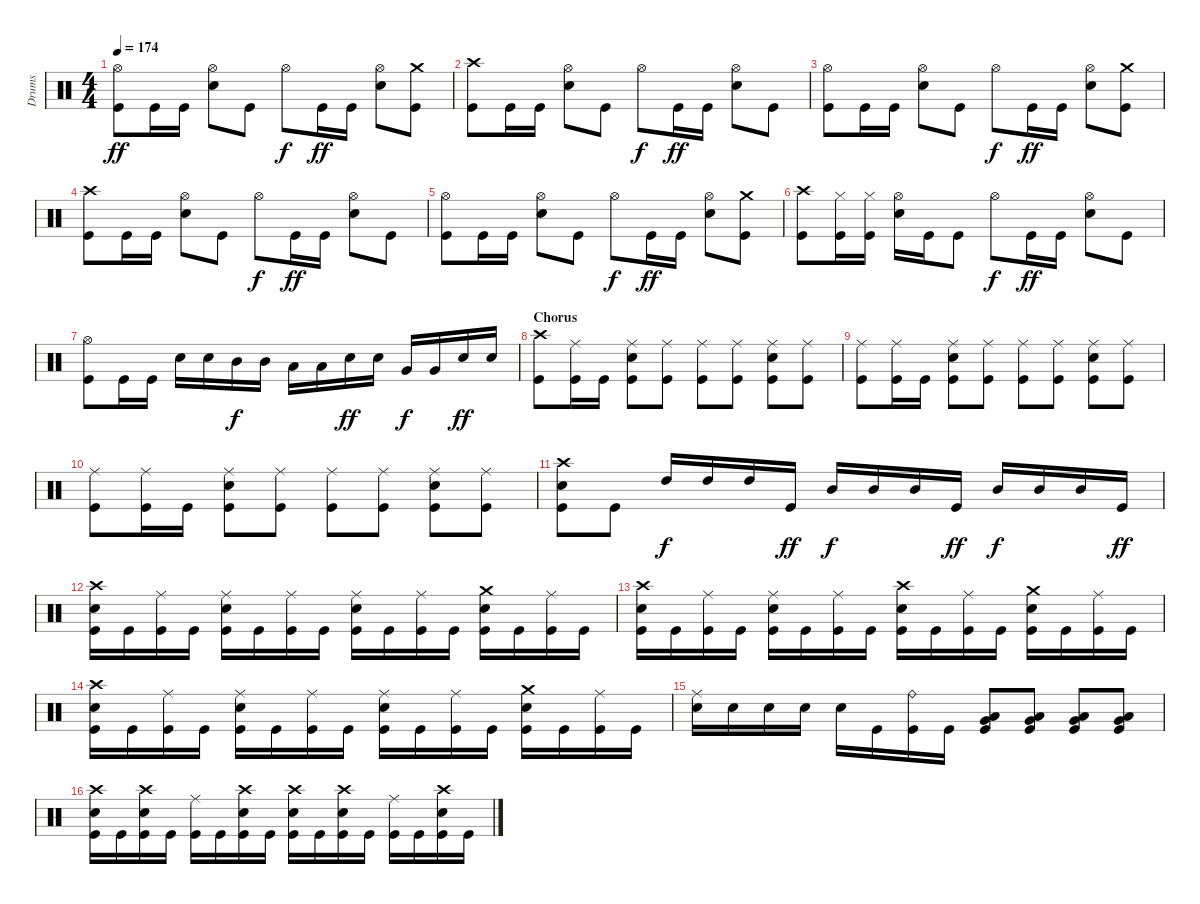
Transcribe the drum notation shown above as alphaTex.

\track ("Drums" "Drums") {instrument percussion}
\staff {score}
\articulation defaults
\ts (4 4)
\tempo 174
\clef neutral
\ks c
("Hi-Hat (open)" "Kick (hit)").8{dy ff} "Kick (hit)".16 "Kick (hit)".16 ("Hi-Hat (open)" "Electric Snare (hit)").8 "Kick (hit)".8 "Hi-Hat (open)".8{dy f} "Kick (hit)".16{dy ff} "Kick (hit)".16 ("Hi-Hat (open)" "Electric Snare (hit)").8 ("Crash medium (hit)" "Kick (hit)").8 |
("Crash high (hit)" "Kick (hit)").8 "Kick (hit)".16 "Kick (hit)".16 ("Hi-Hat (open)" "Electric Snare (hit)").8 "Kick (hit)".8 "Hi-Hat (open)".8{dy f} "Kick (hit)".16{dy ff} "Kick (hit)".16 ("Hi-Hat (open)" "Electric Snare (hit)").8 "Kick (hit)".8 |
("Hi-Hat (open)" "Kick (hit)").8 "Kick (hit)".16 "Kick (hit)".16 ("Hi-Hat (open)" "Electric Snare (hit)").8 "Kick (hit)".8 "Hi-Hat (open)".8{dy f} "Kick (hit)".16{dy ff} "Kick (hit)".16 ("Hi-Hat (open)" "Electric Snare (hit)").8 ("Crash medium (hit)" "Kick (hit)").8 |
("Crash high (hit)" "Kick (hit)").8 "Kick (hit)".16 "Kick (hit)".16 ("Hi-Hat (open)" "Electric Snare (hit)").8 "Kick (hit)".8 "Hi-Hat (open)".8{dy f} "Kick (hit)".16{dy ff} "Kick (hit)".16 ("Hi-Hat (open)" "Electric Snare (hit)").8 "Kick (hit)".8 |
("Hi-Hat (open)" "Kick (hit)").8 "Kick (hit)".16 "Kick (hit)".16 ("Hi-Hat (open)" "Electric Snare (hit)").8 "Kick (hit)".8 "Hi-Hat (open)".8{dy f} "Kick (hit)".16{dy ff} "Kick (hit)".16 ("Hi-Hat (open)" "Electric Snare (hit)").8 ("Crash medium (hit)" "Kick (hit)").8 |
("Crash high (hit)" "Kick (hit)").8 ("Hi-Hat (closed)" "Kick (hit)").16 ("Hi-Hat (closed)" "Kick (hit)").16 ("Hi-Hat (open)" "Electric Snare (hit)").16 "Kick (hit)".16 "Kick (hit)".8 "Hi-Hat (open)".8{dy f} "Kick (hit)".16{dy ff} "Kick (hit)".16 ("Hi-Hat (open)" "Electric Snare (hit)").8 "Kick (hit)".8 |
("Hi-Hat (open)" "Kick (hit)").8 "Kick (hit)".16 "Kick (hit)".16 "Electric Snare (hit)".16 "Electric Snare (hit)".16 "Mid Tom (hit)".16{dy f} "Mid Tom (hit)".16 "Low Tom (hit)".16 "Low Tom (hit)".16 "Electric Snare (hit)".16{dy ff} "Electric Snare (hit)".16 "Very Low Tom (hit)".16{dy f} "Very Low Tom (hit)".16 "Electric Snare (hit)".16{dy ff} "Electric Snare (hit)".16 |
\section ("" "Chorus")
("Crash high (hit)" "Kick (hit)").8 ("Ride (middle)" "Kick (hit)").16 "Kick (hit)".16 ("Ride (middle)" "Electric Snare (hit)" "Kick (hit)").8 ("Ride (middle)" "Kick (hit)").8 ("Ride (middle)" "Kick (hit)").8 ("Ride (middle)" "Kick (hit)").8 ("Ride (middle)" "Electric Snare (hit)" "Kick (hit)").8 ("Ride (middle)" "Kick (hit)").8 |
("Ride (middle)" "Kick (hit)").8 ("Ride (middle)" "Kick (hit)").16 "Kick (hit)".16 ("Ride (middle)" "Electric Snare (hit)" "Kick (hit)").8 ("Ride (middle)" "Kick (hit)").8 ("Ride (middle)" "Kick (hit)").8 ("Ride (middle)" "Kick (hit)").8 ("Ride (middle)" "Electric Snare (hit)" "Kick (hit)").8 ("Ride (middle)" "Kick (hit)").8 |
("Ride (middle)" "Kick (hit)").8 ("Ride (middle)" "Kick (hit)").16 "Kick (hit)".16 ("Ride (middle)" "Electric Snare (hit)" "Kick (hit)").8 ("Ride (middle)" "Kick (hit)").8 ("Ride (middle)" "Kick (hit)").8 ("Ride (middle)" "Kick (hit)").8 ("Ride (middle)" "Electric Snare (hit)" "Kick (hit)").8 ("Ride (middle)" "Kick (hit)").8 |
("Crash high (hit)" "Electric Snare (hit)" "Kick (hit)").8 "Kick (hit)".8 "High Tom (hit)".16{dy f} "High Tom (hit)".16 "High Tom (hit)".16 "Kick (hit)".16{dy ff} "Mid Tom (hit)".16{dy f} "Mid Tom (hit)".16 "Mid Tom (hit)".16 "Kick (hit)".16{dy ff} "Mid Tom (hit)".16{dy f} "Mid Tom (hit)".16 "Mid Tom (hit)".16 "Kick (hit)".16{dy ff} |
("Crash high (hit)" "Electric Snare (hit)" "Kick (hit)").16 "Kick (hit)".16 ("Ride (middle)" "Kick (hit)").16 "Kick (hit)".16 ("Ride (middle)" "Electric Snare (hit)" "Kick (hit)").16 "Kick (hit)".16 ("Ride (middle)" "Kick (hit)").16 "Kick (hit)".16 ("Ride (middle)" "Electric Snare (hit)" "Kick (hit)").16 "Kick (hit)".16 ("Ride (middle)" "Kick (hit)").16 "Kick (hit)".16 ("Crash medium (hit)" "Electric Snare (hit)" "Kick (hit)").16 "Kick (hit)".16 ("Ride (middle)" "Kick (hit)").16 "Kick (hit)".16 |
("Crash high (hit)" "Electric Snare (hit)" "Kick (hit)").16 "Kick (hit)".16 ("Ride (middle)" "Kick (hit)").16 "Kick (hit)".16 ("Ride (middle)" "Electric Snare (hit)" "Kick (hit)").16 "Kick (hit)".16 ("Ride (middle)" "Kick (hit)").16 "Kick (hit)".16 ("Crash high (hit)" "Electric Snare (hit)" "Kick (hit)").16 "Kick (hit)".16 ("Ride (middle)" "Kick (hit)").16 "Kick (hit)".16 ("Crash medium (hit)" "Electric Snare (hit)" "Kick (hit)").16 "Kick (hit)".16 ("Ride (middle)" "Kick (hit)").16 "Kick (hit)".16 |
("Crash high (hit)" "Electric Snare (hit)" "Kick (hit)").16 "Kick (hit)".16 ("Ride (middle)" "Kick (hit)").16 "Kick (hit)".16 ("Ride (middle)" "Electric Snare (hit)" "Kick (hit)").16 "Kick (hit)".16 ("Ride (middle)" "Kick (hit)").16 "Kick (hit)".16 ("Ride (middle)" "Electric Snare (hit)" "Kick (hit)").16 "Kick (hit)".16 ("Ride (middle)" "Kick (hit)").16 "Kick (hit)".16 ("Crash medium (hit)" "Electric Snare (hit)" "Kick (hit)").16 "Kick (hit)".16 ("Ride (middle)" "Kick (hit)").16 "Kick (hit)".16 |
("Ride (middle)" "Electric Snare (hit)").16 "Electric Snare (hit)".16 "Electric Snare (hit)".16 "Electric Snare (hit)".16 "Electric Snare (hit)".16 "Kick (hit)".16 ("Ride (bell)" "Kick (hit)").16 "Kick (hit)".16 ("Low Tom (hit)" "Very Low Tom (hit)" "Kick (hit)").8 ("Low Tom (hit)" "Very Low Tom (hit)" "Kick (hit)").8 ("Low Tom (hit)" "Very Low Tom (hit)" "Kick (hit)").8 ("Low Tom (hit)" "Very Low Tom (hit)" "Kick (hit)").8 |
("Crash high (hit)" "Electric Snare (hit)" "Kick (hit)").16 "Kick (hit)".16 ("Crash high (hit)" "Electric Snare (hit)" "Kick (hit)").16 "Kick (hit)".16 ("Ride (middle)" "Kick (hit)").16 "Kick (hit)".16 ("Crash high (hit)" "Electric Snare (hit)" "Kick (hit)").16 "Kick (hit)".16 ("Crash high (hit)" "Electric Snare (hit)" "Kick (hit)").16 "Kick (hit)".16 ("Crash high (hit)" "Electric Snare (hit)" "Kick (hit)").16 "Kick (hit)".16 ("Ride (middle)" "Kick (hit)").16 "Kick (hit)".16 ("Crash high (hit)" "Electric Snare (hit)" "Kick (hit)").16 "Kick (hit)".16
